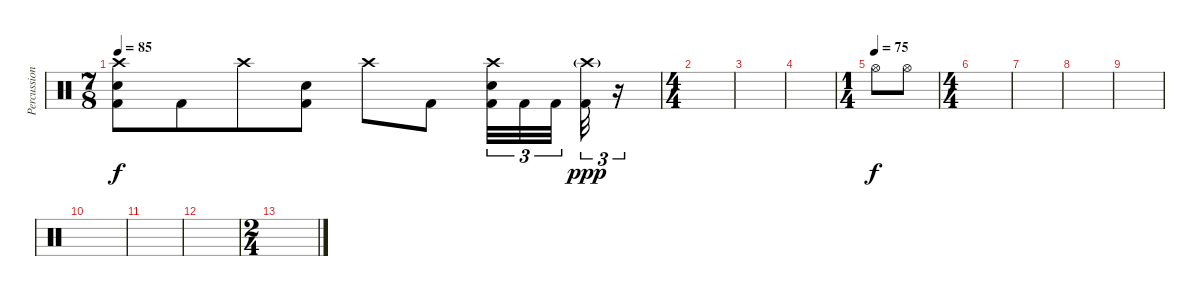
\track ("Percussion" "Percussion") {instrument percussion}
\staff {score}
\articulation defaults
\ts (7 8)
\tempo 85
\clef neutral
\ks c
("Crash high (hit)" "Snare (hit) 2" "Kick (hit) 2").8{dy f} "Kick (hit) 2".8 "Crash high (hit)".8 ("Snare (hit) 2" "Kick (hit) 2").8 "Crash high (hit)".8 "Kick (hit) 2".8 ("Crash high (hit)" "Snare (hit) 2" "Kick (hit) 2").32{tu (3 2)} "Kick (hit) 2".32{tu (3 2)} "Kick (hit) 2".32{tu (3 2) beam splitsecondary} ("Crash high (hit)"{g} "Kick (hit) 2").32{tu (3 2) dy ppp} r.16{tu (3 2)} |
\ts (4 4)
|
|
|
\ts (1 4)
\tempo (75)
"Hi-Hat (open)".8{dy f} "Hi-Hat (open)".8 |
\ts (4 4)
|
|
|
|
|
|
|
\ts (2 4)
